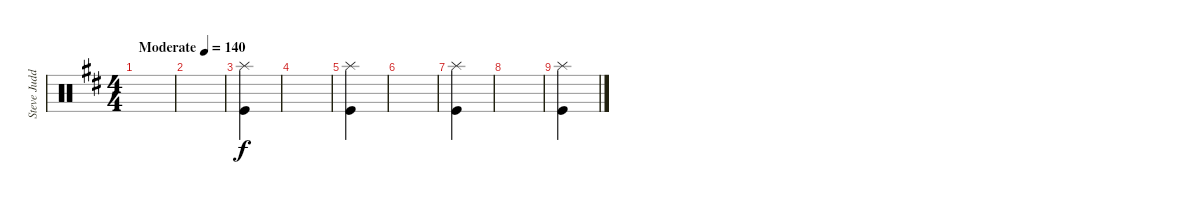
\track ("Steve Judd" "Steve Judd") {instrument percussion}
\staff {score}
\articulation defaults
\ts (4 4)
\tempo (140 "Moderate")
\clef neutral
\ks bminor
|
|
("Splash (hit)" "Kick (hit)").4 |
|
("Splash (hit)" "Kick (hit)").4 |
|
("Splash (hit)" "Kick (hit)").4 |
|
("Splash (hit)" "Kick (hit)").4
